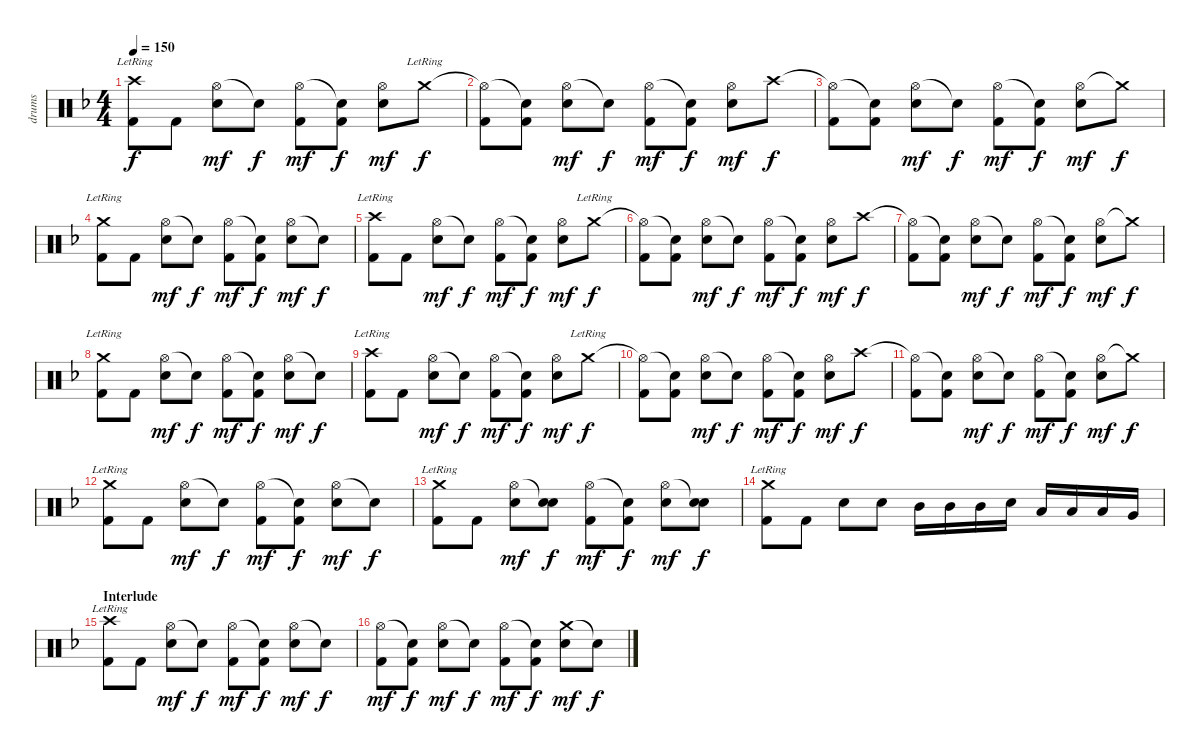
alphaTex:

\track ("drums" "drums") {instrument percussion}
\staff {score}
\articulation defaults
\ts (4 4)
\tempo 150
\clef neutral
\ks dminor
("Crash high (hit)"{lr} "Kick (hit) 2").8{dy f} "Kick (hit) 2".8 ("Hi-Hat (open)" "Electric Snare (hit)").8{dy mf} "Snare (hit)"{t}.8{dy f} ("Hi-Hat (open)" "Kick (hit) 2").8{dy mf} ("Snare (hit)"{t} "Kick (hit) 2").8{dy f} ("Hi-Hat (open)" "Electric Snare (hit)").8{dy mf} "Crash medium (hit)"{lr}.8{dy f} |
("Hi-Hat (open)"{t} "Kick (hit) 2").8 ("Snare (hit)"{t} "Kick (hit) 2").8 ("Hi-Hat (open)" "Electric Snare (hit)").8{dy mf} "Snare (hit)"{t}.8{dy f} ("Hi-Hat (open)" "Kick (hit) 2").8{dy mf} ("Snare (hit)"{t} "Kick (hit) 2").8{dy f} ("Hi-Hat (open)" "Electric Snare (hit)").8{dy mf} "Crash high (hit)".8{dy f} |
("Hi-Hat (open)"{t} "Kick (hit) 2").8 ("Snare (hit)"{t} "Kick (hit) 2").8 ("Hi-Hat (open)" "Electric Snare (hit)").8{dy mf} "Snare (hit)"{t}.8{dy f} ("Hi-Hat (open)" "Kick (hit) 2").8{dy mf} ("Snare (hit)"{t} "Kick (hit) 2").8{dy f} ("Hi-Hat (open)" "Electric Snare (hit)").8{dy mf} "Crash medium (hit)"{t}.8{dy f} |
("Crash medium (hit)"{lr} "Kick (hit) 2").8 "Kick (hit) 2".8 ("Hi-Hat (open)" "Electric Snare (hit)").8{dy mf} "Snare (hit)"{t}.8{dy f} ("Hi-Hat (open)" "Kick (hit) 2").8{dy mf} ("Snare (hit)"{t} "Kick (hit) 2").8{dy f} ("Hi-Hat (open)" "Electric Snare (hit)").8{dy mf} "Snare (hit)"{t}.8{dy f} |
("Crash high (hit)"{lr} "Kick (hit) 2").8 "Kick (hit) 2".8 ("Hi-Hat (open)" "Electric Snare (hit)").8{dy mf} "Snare (hit)"{t}.8{dy f} ("Hi-Hat (open)" "Kick (hit) 2").8{dy mf} ("Snare (hit)"{t} "Kick (hit) 2").8{dy f} ("Hi-Hat (open)" "Electric Snare (hit)").8{dy mf} "Crash medium (hit)"{lr}.8{dy f} |
("Hi-Hat (open)"{t} "Kick (hit) 2").8 ("Snare (hit)"{t} "Kick (hit) 2").8 ("Hi-Hat (open)" "Electric Snare (hit)").8{dy mf} "Snare (hit)"{t}.8{dy f} ("Hi-Hat (open)" "Kick (hit) 2").8{dy mf} ("Snare (hit)"{t} "Kick (hit) 2").8{dy f} ("Hi-Hat (open)" "Electric Snare (hit)").8{dy mf} "Crash high (hit)".8{dy f} |
("Hi-Hat (open)"{t} "Kick (hit) 2").8 ("Snare (hit)"{t} "Kick (hit) 2").8 ("Hi-Hat (open)" "Electric Snare (hit)").8{dy mf} "Snare (hit)"{t}.8{dy f} ("Hi-Hat (open)" "Kick (hit) 2").8{dy mf} ("Snare (hit)"{t} "Kick (hit) 2").8{dy f} ("Hi-Hat (open)" "Electric Snare (hit)").8{dy mf} "Crash medium (hit)"{t}.8{dy f} |
("Crash medium (hit)"{lr} "Kick (hit) 2").8 "Kick (hit) 2".8 ("Hi-Hat (open)" "Electric Snare (hit)").8{dy mf} "Snare (hit)"{t}.8{dy f} ("Hi-Hat (open)" "Kick (hit) 2").8{dy mf} ("Snare (hit)"{t} "Kick (hit) 2").8{dy f} ("Hi-Hat (open)" "Electric Snare (hit)").8{dy mf} "Snare (hit)"{t}.8{dy f} |
("Crash high (hit)"{lr} "Kick (hit) 2").8 "Kick (hit) 2".8 ("Hi-Hat (open)" "Electric Snare (hit)").8{dy mf} "Snare (hit)"{t}.8{dy f} ("Hi-Hat (open)" "Kick (hit) 2").8{dy mf} ("Snare (hit)"{t} "Kick (hit) 2").8{dy f} ("Hi-Hat (open)" "Electric Snare (hit)").8{dy mf} "Crash medium (hit)"{lr}.8{dy f} |
("Hi-Hat (open)"{t} "Kick (hit) 2").8 ("Snare (hit)"{t} "Kick (hit) 2").8 ("Hi-Hat (open)" "Electric Snare (hit)").8{dy mf} "Snare (hit)"{t}.8{dy f} ("Hi-Hat (open)" "Kick (hit) 2").8{dy mf} ("Snare (hit)"{t} "Kick (hit) 2").8{dy f} ("Hi-Hat (open)" "Electric Snare (hit)").8{dy mf} "Crash high (hit)".8{dy f} |
("Hi-Hat (open)"{t} "Kick (hit) 2").8 ("Snare (hit)"{t} "Kick (hit) 2").8 ("Hi-Hat (open)" "Electric Snare (hit)").8{dy mf} "Snare (hit)"{t}.8{dy f} ("Hi-Hat (open)" "Kick (hit) 2").8{dy mf} ("Snare (hit)"{t} "Kick (hit) 2").8{dy f} ("Hi-Hat (open)" "Electric Snare (hit)").8{dy mf} "Crash medium (hit)"{t}.8{dy f} |
("Crash medium (hit)"{lr} "Kick (hit) 2").8 "Kick (hit) 2".8 ("Hi-Hat (open)" "Electric Snare (hit)").8{dy mf} "Snare (hit)"{t}.8{dy f} ("Hi-Hat (open)" "Kick (hit) 2").8{dy mf} ("Snare (hit)"{t} "Kick (hit) 2").8{dy f} ("Hi-Hat (open)" "Electric Snare (hit)").8{dy mf} "Snare (hit)"{t}.8{dy f} |
("Crash medium (hit)"{lr} "Kick (hit) 2").8 "Kick (hit) 2".8 ("Hi-Hat (open)" "Electric Snare (hit)").8{dy mf} ("Snare (hit)"{t} "Electric Snare (hit)").8{dy f} ("Hi-Hat (open)" "Kick (hit) 2").8{dy mf} ("Snare (hit)"{t} "Kick (hit) 2").8{dy f} ("Hi-Hat (open)" "Electric Snare (hit)").8{dy mf} ("Snare (hit)"{t} "Electric Snare (hit)").8{dy f} |
("Crash medium (hit)"{lr} "Kick (hit) 2").8 "Kick (hit) 2".8 "Electric Snare (hit)".8 "Electric Snare (hit)".8 "Mid Tom (hit)".16 "Mid Tom (hit)".16 "Mid Tom (hit)".16 "Electric Snare (hit)".16 "Low Tom (hit)".16 "Low Tom (hit)".16 "Low Tom (hit)".16 "Very Low Tom (hit)".16 |
\section ("" "Interlude")
("Crash high (hit)"{lr} "Kick (hit) 2").8 "Kick (hit) 2".8 ("Hi-Hat (open)" "Electric Snare (hit)").8{dy mf} "Snare (hit)"{t}.8{dy f} ("Hi-Hat (open)" "Kick (hit) 2").8{dy mf} ("Snare (hit)"{t} "Kick (hit) 2").8{dy f} ("Hi-Hat (open)" "Electric Snare (hit)").8{dy mf} "Snare (hit)"{t}.8{dy f} |
("Hi-Hat (open)" "Kick (hit) 2").8{dy mf} ("Snare (hit)"{t} "Kick (hit) 2").8{dy f} ("Hi-Hat (open)" "Electric Snare (hit)").8{dy mf} "Snare (hit)"{t}.8{dy f} ("Hi-Hat (open)" "Kick (hit) 2").8{dy mf} ("Snare (hit)"{t} "Kick (hit) 2").8{dy f} ("Crash medium (hit)" "Electric Snare (hit)").8{dy mf} "Snare (hit)"{t}.8{dy f}
